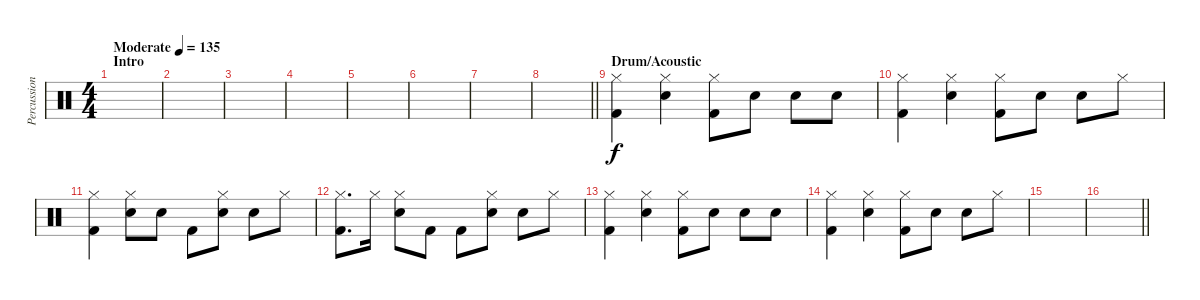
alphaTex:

\track ("Percussion" "Percussion") {instrument percussion}
\staff {score}
\articulation defaults
\ts (4 4)
\section ("" "Intro")
\tempo (135 "Moderate")
\clef neutral
\ks c
|
|
|
|
|
|
|
\barLineRight lightlight
|
\section ("" "Drum/Acoustic")
("Hi-Hat (closed)" "Kick (hit) 2").4 ("Hi-Hat (closed)" "Snare (hit) 2").4 ("Hi-Hat (closed)" "Kick (hit) 2").8 "Snare (hit) 2".8 "Snare (hit) 2".8 "Snare (hit) 2".8 |
("Hi-Hat (closed)" "Kick (hit) 2").4 ("Hi-Hat (closed)" "Snare (hit) 2").4 ("Hi-Hat (closed)" "Kick (hit) 2").8 "Snare (hit) 2".8 "Snare (hit) 2".8 "Hi-Hat (closed)".8 |
("Hi-Hat (closed)" "Kick (hit) 2").4 ("Hi-Hat (closed)" "Snare (hit) 2").8 "Snare (hit) 2".8 "Kick (hit) 2".8 ("Hi-Hat (closed)" "Snare (hit) 2").8 "Snare (hit) 2".8 "Hi-Hat (closed)".8 |
("Hi-Hat (closed)" "Kick (hit) 2").8{d} "Hi-Hat (closed)".16 ("Hi-Hat (closed)" "Snare (hit) 2").8 "Kick (hit) 2".8 "Kick (hit) 2".8 ("Hi-Hat (closed)" "Snare (hit) 2").8 "Snare (hit) 2".8 "Hi-Hat (closed)".8 |
("Hi-Hat (closed)" "Kick (hit) 2").4 ("Hi-Hat (closed)" "Snare (hit) 2").4 ("Hi-Hat (closed)" "Kick (hit) 2").8 "Snare (hit) 2".8 "Snare (hit) 2".8 "Snare (hit) 2".8 |
("Hi-Hat (closed)" "Kick (hit) 2").4 ("Hi-Hat (closed)" "Snare (hit) 2").4 ("Hi-Hat (closed)" "Kick (hit) 2").8 "Snare (hit) 2".8 "Snare (hit) 2".8 "Hi-Hat (closed)".8 |
|
\barLineRight lightlight
